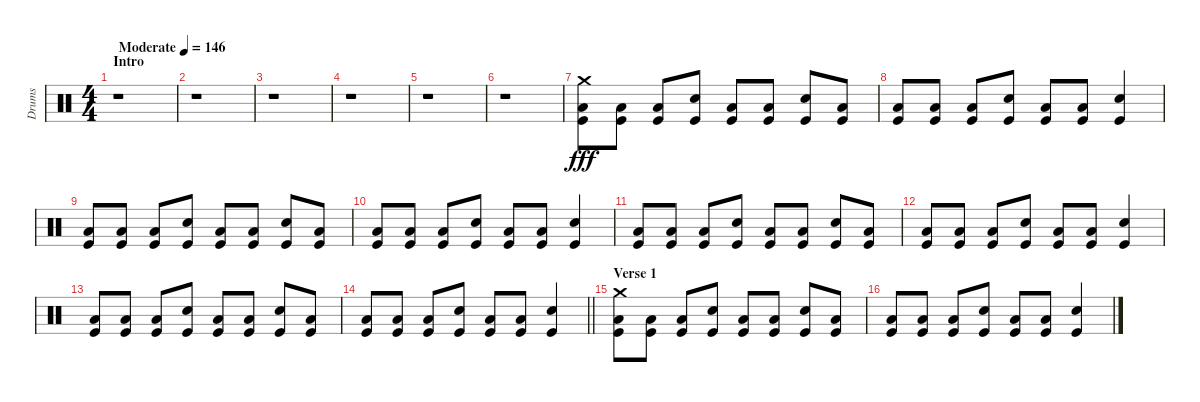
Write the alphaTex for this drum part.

\track ("Drums" "Drums") {instrument percussion}
\staff {score}
\articulation defaults
\ts (4 4)
\section ("" "Intro")
\tempo (146 "Moderate")
\clef neutral
\ks c
r.1{dy fff} |
r.1 |
r.1 |
r.1 |
r.1 |
r.1 |
("Crash medium (hit)" "Low Floor Tom (hit)" "Kick (hit)").8 ("Low Floor Tom (hit)" "Kick (hit)").8 ("Low Floor Tom (hit)" "Kick (hit)").8 ("Electric Snare (hit)" "Kick (hit)").8 ("Low Floor Tom (hit)" "Kick (hit)").8 ("Low Floor Tom (hit)" "Kick (hit)").8 ("Electric Snare (hit)" "Kick (hit)").8 ("Low Floor Tom (hit)" "Kick (hit)").8 |
("Low Floor Tom (hit)" "Kick (hit)").8 ("Low Floor Tom (hit)" "Kick (hit)").8 ("Low Floor Tom (hit)" "Kick (hit)").8 ("Electric Snare (hit)" "Kick (hit)").8 ("Low Floor Tom (hit)" "Kick (hit)").8 ("Low Floor Tom (hit)" "Kick (hit)").8 ("Electric Snare (hit)" "Kick (hit)").4 |
("Low Floor Tom (hit)" "Kick (hit)").8 ("Low Floor Tom (hit)" "Kick (hit)").8 ("Low Floor Tom (hit)" "Kick (hit)").8 ("Electric Snare (hit)" "Kick (hit)").8 ("Low Floor Tom (hit)" "Kick (hit)").8 ("Low Floor Tom (hit)" "Kick (hit)").8 ("Electric Snare (hit)" "Kick (hit)").8 ("Low Floor Tom (hit)" "Kick (hit)").8 |
("Low Floor Tom (hit)" "Kick (hit)").8 ("Low Floor Tom (hit)" "Kick (hit)").8 ("Low Floor Tom (hit)" "Kick (hit)").8 ("Electric Snare (hit)" "Kick (hit)").8 ("Low Floor Tom (hit)" "Kick (hit)").8 ("Low Floor Tom (hit)" "Kick (hit)").8 ("Electric Snare (hit)" "Kick (hit)").4 |
("Low Floor Tom (hit)" "Kick (hit)").8 ("Low Floor Tom (hit)" "Kick (hit)").8 ("Low Floor Tom (hit)" "Kick (hit)").8 ("Electric Snare (hit)" "Kick (hit)").8 ("Low Floor Tom (hit)" "Kick (hit)").8 ("Low Floor Tom (hit)" "Kick (hit)").8 ("Electric Snare (hit)" "Kick (hit)").8 ("Low Floor Tom (hit)" "Kick (hit)").8 |
("Low Floor Tom (hit)" "Kick (hit)").8 ("Low Floor Tom (hit)" "Kick (hit)").8 ("Low Floor Tom (hit)" "Kick (hit)").8 ("Electric Snare (hit)" "Kick (hit)").8 ("Low Floor Tom (hit)" "Kick (hit)").8 ("Low Floor Tom (hit)" "Kick (hit)").8 ("Electric Snare (hit)" "Kick (hit)").4 |
("Low Floor Tom (hit)" "Kick (hit)").8 ("Low Floor Tom (hit)" "Kick (hit)").8 ("Low Floor Tom (hit)" "Kick (hit)").8 ("Electric Snare (hit)" "Kick (hit)").8 ("Low Floor Tom (hit)" "Kick (hit)").8 ("Low Floor Tom (hit)" "Kick (hit)").8 ("Electric Snare (hit)" "Kick (hit)").8 ("Low Floor Tom (hit)" "Kick (hit)").8 |
\barLineRight lightlight
("Low Floor Tom (hit)" "Kick (hit)").8 ("Low Floor Tom (hit)" "Kick (hit)").8 ("Low Floor Tom (hit)" "Kick (hit)").8 ("Electric Snare (hit)" "Kick (hit)").8 ("Low Floor Tom (hit)" "Kick (hit)").8 ("Low Floor Tom (hit)" "Kick (hit)").8 ("Electric Snare (hit)" "Kick (hit)").4 |
\section ("" "Verse 1")
("Crash medium (hit)" "Low Floor Tom (hit)" "Kick (hit)").8 ("Low Floor Tom (hit)" "Kick (hit)").8 ("Low Floor Tom (hit)" "Kick (hit)").8 ("Electric Snare (hit)" "Kick (hit)").8 ("Low Floor Tom (hit)" "Kick (hit)").8 ("Low Floor Tom (hit)" "Kick (hit)").8 ("Electric Snare (hit)" "Kick (hit)").8 ("Low Floor Tom (hit)" "Kick (hit)").8 |
("Low Floor Tom (hit)" "Kick (hit)").8 ("Low Floor Tom (hit)" "Kick (hit)").8 ("Low Floor Tom (hit)" "Kick (hit)").8 ("Electric Snare (hit)" "Kick (hit)").8 ("Low Floor Tom (hit)" "Kick (hit)").8 ("Low Floor Tom (hit)" "Kick (hit)").8 ("Electric Snare (hit)" "Kick (hit)").4
